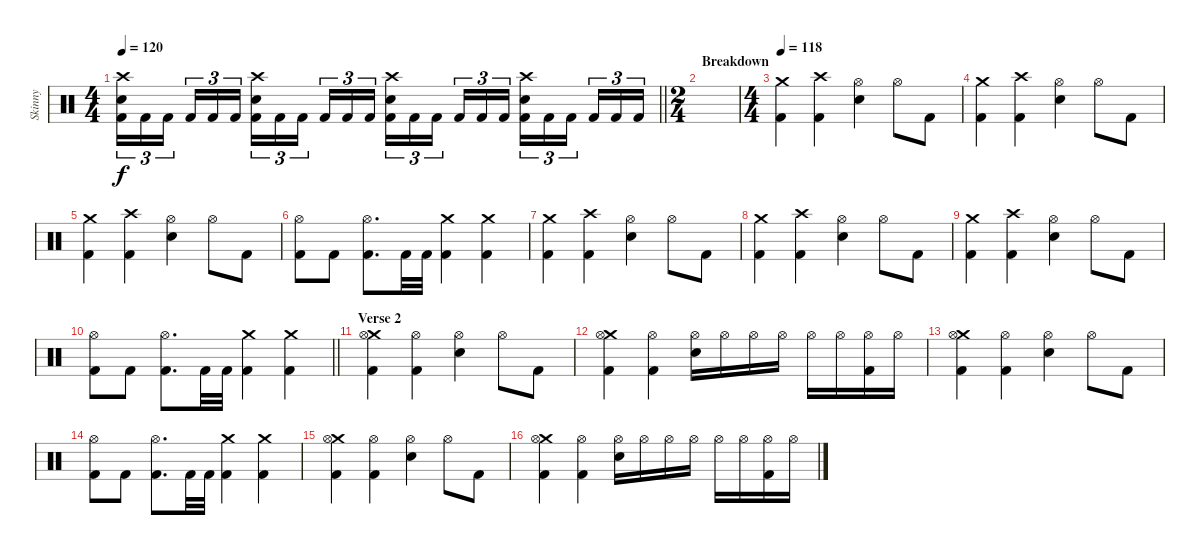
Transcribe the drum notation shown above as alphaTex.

\track ("Skinny" "Skinny") {instrument percussion}
\staff {score}
\articulation defaults
\ts (4 4)
\tempo 120
\clef neutral
\barLineRight lightlight
\ks c
("Crash high (hit)" "Electric Snare (hit)" "Kick (hit) 2").16{tu (3 2) dy f} "Kick (hit) 2".16{tu (3 2)} "Kick (hit) 2".16{tu (3 2) beam splitsecondary} "Kick (hit) 2".16{tu (3 2)} "Kick (hit) 2".16{tu (3 2)} "Kick (hit) 2".16{tu (3 2)} ("Crash high (hit)" "Electric Snare (hit)" "Kick (hit) 2").16{tu (3 2)} "Kick (hit) 2".16{tu (3 2)} "Kick (hit) 2".16{tu (3 2) beam splitsecondary} "Kick (hit) 2".16{tu (3 2)} "Kick (hit) 2".16{tu (3 2)} "Kick (hit) 2".16{tu (3 2)} ("Crash high (hit)" "Electric Snare (hit)" "Kick (hit) 2").16{tu (3 2)} "Kick (hit) 2".16{tu (3 2)} "Kick (hit) 2".16{tu (3 2) beam splitsecondary} "Kick (hit) 2".16{tu (3 2)} "Kick (hit) 2".16{tu (3 2)} "Kick (hit) 2".16{tu (3 2)} ("Crash high (hit)" "Electric Snare (hit)" "Kick (hit) 2").16{tu (3 2)} "Kick (hit) 2".16{tu (3 2)} "Kick (hit) 2".16{tu (3 2) beam splitsecondary} "Kick (hit) 2".16{tu (3 2)} "Kick (hit) 2".16{tu (3 2)} "Kick (hit) 2".16{tu (3 2)} |
\ts (2 4)
\section ("" "Breakdown")
|
\ts (4 4)
\tempo 118
("Crash medium (hit)" "Kick (hit) 2").4 ("Crash high (hit)" "Kick (hit) 2").4 ("Hi-Hat (open)" "Electric Snare (hit)").4 "Hi-Hat (open)".8 "Kick (hit) 2".8 |
("Crash medium (hit)" "Kick (hit) 2").4 ("Crash high (hit)" "Kick (hit) 2").4 ("Hi-Hat (open)" "Electric Snare (hit)").4 "Hi-Hat (open)".8 "Kick (hit) 2".8 |
("Crash medium (hit)" "Kick (hit) 2").4 ("Crash high (hit)" "Kick (hit) 2").4 ("Hi-Hat (open)" "Electric Snare (hit)").4 "Hi-Hat (open)".8 "Kick (hit) 2".8 |
("Hi-Hat (open)" "Kick (hit) 2").8 "Kick (hit) 2".8 ("Hi-Hat (open)" "Kick (hit) 2").8{d} "Kick (hit) 2".32 "Kick (hit) 2".32 ("Crash medium (hit)" "Kick (hit) 2").4 ("Crash medium (hit)" "Kick (hit) 2").4 |
("Crash medium (hit)" "Kick (hit) 2").4 ("Crash high (hit)" "Kick (hit) 2").4 ("Hi-Hat (open)" "Electric Snare (hit)").4 "Hi-Hat (open)".8 "Kick (hit) 2".8 |
("Crash medium (hit)" "Kick (hit) 2").4 ("Crash high (hit)" "Kick (hit) 2").4 ("Hi-Hat (open)" "Electric Snare (hit)").4 "Hi-Hat (open)".8 "Kick (hit) 2".8 |
("Crash medium (hit)" "Kick (hit) 2").4 ("Crash high (hit)" "Kick (hit) 2").4 ("Hi-Hat (open)" "Electric Snare (hit)").4 "Hi-Hat (open)".8 "Kick (hit) 2".8 |
\barLineRight lightlight
("Hi-Hat (open)" "Kick (hit) 2").8 "Kick (hit) 2".8 ("Hi-Hat (open)" "Kick (hit) 2").8{d} "Kick (hit) 2".32 "Kick (hit) 2".32 ("Crash medium (hit)" "Kick (hit) 2").4 ("Crash medium (hit)" "Kick (hit) 2").4 |
\section ("" "Verse 2")
("Crash medium (hit)" "Hi-Hat (open)" "Kick (hit) 2").4 ("Hi-Hat (open)" "Kick (hit) 2").4 ("Hi-Hat (open)" "Electric Snare (hit)").4 "Hi-Hat (open)".8 "Kick (hit) 2".8 |
("Crash medium (hit)" "Hi-Hat (open)" "Kick (hit) 2").4 ("Hi-Hat (open)" "Kick (hit) 2").4 ("Hi-Hat (open)" "Electric Snare (hit)").16 "Hi-Hat (open)".16 "Hi-Hat (open)".16 "Hi-Hat (open)".16 "Hi-Hat (open)".16 "Hi-Hat (open)".16 ("Hi-Hat (open)" "Kick (hit) 2").16 "Hi-Hat (open)".16 |
("Crash medium (hit)" "Hi-Hat (open)" "Kick (hit) 2").4 ("Hi-Hat (open)" "Kick (hit) 2").4 ("Hi-Hat (open)" "Electric Snare (hit)").4 "Hi-Hat (open)".8 "Kick (hit) 2".8 |
("Hi-Hat (open)" "Kick (hit) 2").8 "Kick (hit) 2".8 ("Hi-Hat (open)" "Kick (hit) 2").8{d} "Kick (hit) 2".32 "Kick (hit) 2".32 ("Crash medium (hit)" "Kick (hit) 2").4 ("Crash medium (hit)" "Kick (hit) 2").4 |
("Crash medium (hit)" "Hi-Hat (open)" "Kick (hit) 2").4 ("Hi-Hat (open)" "Kick (hit) 2").4 ("Hi-Hat (open)" "Electric Snare (hit)").4 "Hi-Hat (open)".8 "Kick (hit) 2".8 |
("Crash medium (hit)" "Hi-Hat (open)" "Kick (hit) 2").4 ("Hi-Hat (open)" "Kick (hit) 2").4 ("Hi-Hat (open)" "Electric Snare (hit)").16 "Hi-Hat (open)".16 "Hi-Hat (open)".16 "Hi-Hat (open)".16 "Hi-Hat (open)".16 "Hi-Hat (open)".16 ("Hi-Hat (open)" "Kick (hit) 2").16 "Hi-Hat (open)".16
